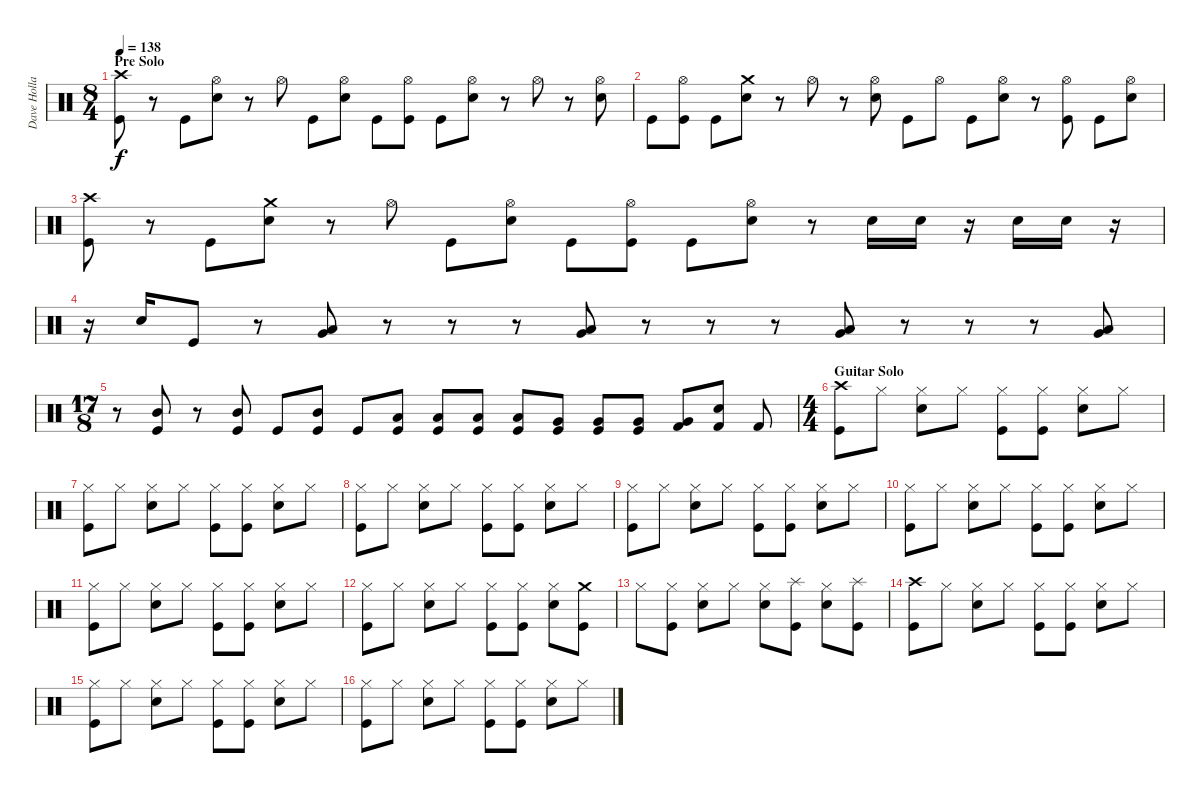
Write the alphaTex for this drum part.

\track ("Dave Holland" "Dave Holla") {instrument percussion}
\staff {score}
\articulation defaults
\ts (8 4)
\section ("" "Pre Solo")
\tempo 138
\clef neutral
\ks c
("Crash high (hit)" "Kick (hit)").8{dy f} r.8 "Kick (hit)".8 ("Hi-Hat (open)" "Electric Snare (hit)").8 r.8 "Hi-Hat (open)".8 "Kick (hit)".8 ("Hi-Hat (open)" "Electric Snare (hit)").8 "Kick (hit)".8 ("Hi-Hat (open)" "Kick (hit)").8 "Kick (hit)".8 ("Hi-Hat (open)" "Electric Snare (hit)").8 r.8 "Hi-Hat (open)".8 r.8 ("Hi-Hat (open)" "Electric Snare (hit)").8 |
"Kick (hit)".8 ("Hi-Hat (open)" "Kick (hit)").8 "Kick (hit)".8 ("Crash medium (hit)" "Electric Snare (hit)").8 r.8 "Hi-Hat (open)".8 r.8 ("Hi-Hat (open)" "Electric Snare (hit)").8 "Kick (hit)".8 "Hi-Hat (open)".8 "Kick (hit)".8 ("Hi-Hat (open)" "Electric Snare (hit)").8 r.8 ("Hi-Hat (open)" "Kick (hit)").8 "Kick (hit)".8 ("Hi-Hat (open)" "Electric Snare (hit)").8 |
("Crash high (hit)" "Kick (hit)").8 r.8 "Kick (hit)".8 ("Crash medium (hit)" "Electric Snare (hit)").8 r.8 "Hi-Hat (open)".8 "Kick (hit)".8 ("Hi-Hat (open)" "Electric Snare (hit)").8 "Kick (hit)".8 ("Hi-Hat (open)" "Kick (hit)").8 "Kick (hit)".8 ("Hi-Hat (open)" "Electric Snare (hit)").8 r.8 "Electric Snare (hit)".16 "Electric Snare (hit)".16 r.16 "Electric Snare (hit)".16 "Electric Snare (hit)".16 r.16 |
r.16 "Electric Snare (hit)".16 "Kick (hit)".8 r.8 ("Low Tom (hit)" "Very Low Tom (hit)").8 r.8 r.8 r.8 ("Low Tom (hit)" "Very Low Tom (hit)").8 r.8 r.8 r.8 ("Low Tom (hit)" "Very Low Tom (hit)").8 r.8 r.8 r.8 ("Low Tom (hit)" "Very Low Tom (hit)").8 |
\ts (17 8)
r.8 ("Mid Tom (hit)" "Kick (hit)").8 r.8 ("Mid Tom (hit)" "Kick (hit)").8 "Kick (hit)".8 ("Mid Tom (hit)" "Kick (hit)").8 "Kick (hit)".8 ("Low Tom (hit)" "Kick (hit)").8 ("Low Tom (hit)" "Kick (hit)").8 ("Low Tom (hit)" "Kick (hit)").8 ("Low Tom (hit)" "Kick (hit)").8 ("Very Low Tom (hit)" "Kick (hit)").8 ("Very Low Tom (hit)" "Kick (hit)").8 ("Very Low Tom (hit)" "Kick (hit)").8 ("Very Low Tom (hit)" "Kick (hit) 2").8 ("Electric Snare (hit)" "Kick (hit) 2").8 "Kick (hit) 2".8 |
\ts (4 4)
\section ("" "Guitar Solo")
("Crash high (hit)" "Kick (hit)").8 "Hi-Hat (closed)".8 ("Hi-Hat (closed)" "Electric Snare (hit)").8 "Hi-Hat (closed)".8 ("Hi-Hat (closed)" "Kick (hit)").8 ("Hi-Hat (closed)" "Kick (hit)").8 ("Hi-Hat (closed)" "Electric Snare (hit)").8 "Hi-Hat (closed)".8 |
("Hi-Hat (closed)" "Kick (hit)").8 "Hi-Hat (closed)".8 ("Hi-Hat (closed)" "Electric Snare (hit)").8 "Hi-Hat (closed)".8 ("Hi-Hat (closed)" "Kick (hit)").8 ("Hi-Hat (closed)" "Kick (hit)").8 ("Hi-Hat (closed)" "Electric Snare (hit)").8 "Hi-Hat (closed)".8 |
("Hi-Hat (closed)" "Kick (hit)").8 "Hi-Hat (closed)".8 ("Hi-Hat (closed)" "Electric Snare (hit)").8 "Hi-Hat (closed)".8 ("Hi-Hat (closed)" "Kick (hit)").8 ("Hi-Hat (closed)" "Kick (hit)").8 ("Hi-Hat (closed)" "Electric Snare (hit)").8 "Hi-Hat (closed)".8 |
("Hi-Hat (closed)" "Kick (hit)").8 "Hi-Hat (closed)".8 ("Hi-Hat (closed)" "Electric Snare (hit)").8 "Hi-Hat (closed)".8 ("Hi-Hat (closed)" "Kick (hit)").8 ("Hi-Hat (closed)" "Kick (hit)").8 ("Hi-Hat (closed)" "Electric Snare (hit)").8 "Hi-Hat (closed)".8 |
("Hi-Hat (closed)" "Kick (hit)").8 "Hi-Hat (closed)".8 ("Hi-Hat (closed)" "Electric Snare (hit)").8 "Hi-Hat (closed)".8 ("Hi-Hat (closed)" "Kick (hit)").8 ("Hi-Hat (closed)" "Kick (hit)").8 ("Hi-Hat (closed)" "Electric Snare (hit)").8 "Hi-Hat (closed)".8 |
("Hi-Hat (closed)" "Kick (hit)").8 "Hi-Hat (closed)".8 ("Hi-Hat (closed)" "Electric Snare (hit)").8 "Hi-Hat (closed)".8 ("Hi-Hat (closed)" "Kick (hit)").8 ("Hi-Hat (closed)" "Kick (hit)").8 ("Hi-Hat (closed)" "Electric Snare (hit)").8 "Hi-Hat (closed)".8 |
("Hi-Hat (closed)" "Kick (hit)").8 "Hi-Hat (closed)".8 ("Hi-Hat (closed)" "Electric Snare (hit)").8 "Hi-Hat (closed)".8 ("Hi-Hat (closed)" "Kick (hit)").8 ("Hi-Hat (closed)" "Kick (hit)").8 ("Hi-Hat (closed)" "Electric Snare (hit)").8 ("Crash medium (hit)" "Kick (hit)").8 |
"Hi-Hat (closed)".8 ("Hi-Hat (closed)" "Kick (hit)").8 ("Hi-Hat (closed)" "Electric Snare (hit)").8 "Hi-Hat (closed)".8 ("Hi-Hat (closed)" "Electric Snare (hit)").8 ("Splash (hit)" "Kick (hit)").8 ("Hi-Hat (closed)" "Electric Snare (hit)").8 ("Splash (hit)" "Kick (hit)").8 |
("Crash high (hit)" "Kick (hit)").8 "Hi-Hat (closed)".8 ("Hi-Hat (closed)" "Electric Snare (hit)").8 "Hi-Hat (closed)".8 ("Hi-Hat (closed)" "Kick (hit)").8 ("Hi-Hat (closed)" "Kick (hit)").8 ("Hi-Hat (closed)" "Electric Snare (hit)").8 "Hi-Hat (closed)".8 |
("Hi-Hat (closed)" "Kick (hit)").8 "Hi-Hat (closed)".8 ("Hi-Hat (closed)" "Electric Snare (hit)").8 "Hi-Hat (closed)".8 ("Hi-Hat (closed)" "Kick (hit)").8 ("Hi-Hat (closed)" "Kick (hit)").8 ("Hi-Hat (closed)" "Electric Snare (hit)").8 "Hi-Hat (closed)".8 |
("Hi-Hat (closed)" "Kick (hit)").8 "Hi-Hat (closed)".8 ("Hi-Hat (closed)" "Electric Snare (hit)").8 "Hi-Hat (closed)".8 ("Hi-Hat (closed)" "Kick (hit)").8 ("Hi-Hat (closed)" "Kick (hit)").8 ("Hi-Hat (closed)" "Electric Snare (hit)").8 "Hi-Hat (closed)".8
